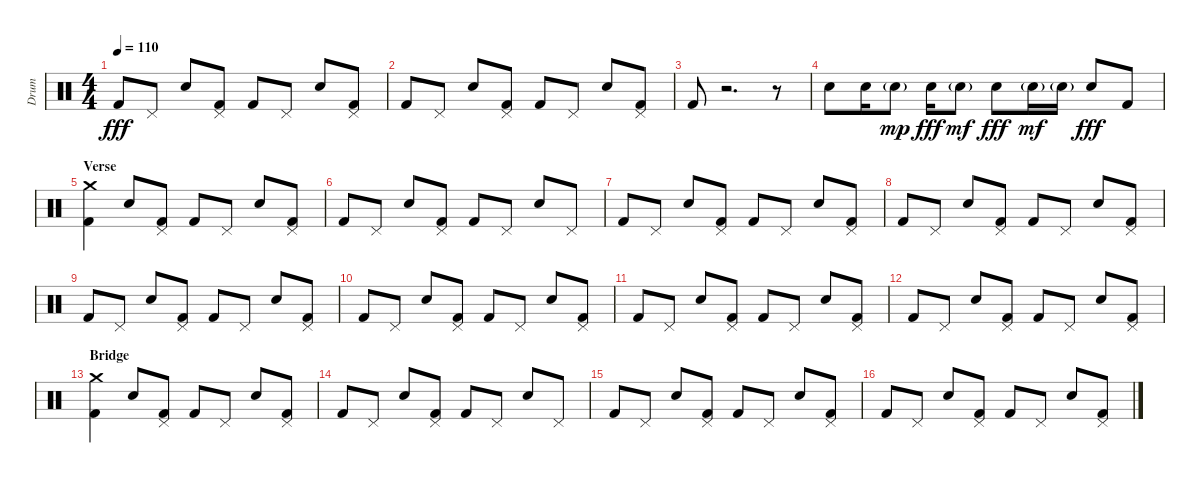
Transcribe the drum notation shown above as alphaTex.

\track ("Drum" "Drum") {instrument percussion}
\staff {score}
\articulation defaults
\ts (4 4)
\tempo 110
\clef neutral
\ks c "Kick (hit) 2".8{dy fff} "Pedal Hi-Hat (hit)".8 "Electric Snare (hit)".8
("Pedal Hi-Hat (hit)" "Kick (hit) 2").8 "Kick (hit) 2".8 "Pedal Hi-Hat (hit)".8 "Electric Snare (hit)".8 ("Pedal Hi-Hat (hit)" "Kick (hit) 2").8 |
"Kick (hit) 2".8 "Pedal Hi-Hat (hit)".8 "Electric Snare (hit)".8 ("Pedal Hi-Hat (hit)" "Kick (hit) 2").8 "Kick (hit) 2".8 "Pedal Hi-Hat (hit)".8 "Electric Snare (hit)".8 ("Pedal Hi-Hat (hit)" "Kick (hit) 2").8 |
"Kick (hit) 2".8 r.2{d} r.8 |
"Electric Snare (hit)".8 "Electric Snare (hit)".16 "Electric Snare (hit)"{g}.8{dy mp} "Electric Snare (hit)".16{dy fff} "Electric Snare (hit)"{g}.8{dy mf} "Electric Snare (hit)".8{dy fff} "Electric Snare (hit)"{g}.16{dy mf} "Electric Snare (hit)"{g}.16 "Electric Snare (hit)".8{dy fff} "Kick (hit) 2".8 |
\section ("" "Verse")
("Crash medium (hit)" "Kick (hit) 2").4 "Electric Snare (hit)".8 ("Pedal Hi-Hat (hit)" "Kick (hit) 2").8 "Kick (hit) 2".8 "Pedal Hi-Hat (hit)".8 "Electric Snare (hit)".8 ("Pedal Hi-Hat (hit)" "Kick (hit) 2").8 |
"Kick (hit) 2".8 "Pedal Hi-Hat (hit)".8 "Electric Snare (hit)".8 ("Pedal Hi-Hat (hit)" "Kick (hit) 2").8 "Kick (hit) 2".8 "Pedal Hi-Hat (hit)".8 "Electric Snare (hit)".8 "Pedal Hi-Hat (hit)".8 |
"Kick (hit) 2".8 "Pedal Hi-Hat (hit)".8 "Electric Snare (hit)".8 ("Pedal Hi-Hat (hit)" "Kick (hit) 2").8 "Kick (hit) 2".8 "Pedal Hi-Hat (hit)".8 "Electric Snare (hit)".8 ("Pedal Hi-Hat (hit)" "Kick (hit) 2").8 |
"Kick (hit) 2".8 "Pedal Hi-Hat (hit)".8 "Electric Snare (hit)".8 ("Pedal Hi-Hat (hit)" "Kick (hit) 2").8 "Kick (hit) 2".8 "Pedal Hi-Hat (hit)".8 "Electric Snare (hit)".8 ("Pedal Hi-Hat (hit)" "Kick (hit) 2").8 |
"Kick (hit) 2".8 "Pedal Hi-Hat (hit)".8 "Electric Snare (hit)".8 ("Pedal Hi-Hat (hit)" "Kick (hit) 2").8 "Kick (hit) 2".8 "Pedal Hi-Hat (hit)".8 "Electric Snare (hit)".8 ("Pedal Hi-Hat (hit)" "Kick (hit) 2").8 |
"Kick (hit) 2".8 "Pedal Hi-Hat (hit)".8 "Electric Snare (hit)".8 ("Pedal Hi-Hat (hit)" "Kick (hit) 2").8 "Kick (hit) 2".8 "Pedal Hi-Hat (hit)".8 "Electric Snare (hit)".8 ("Pedal Hi-Hat (hit)" "Kick (hit) 2").8 |
"Kick (hit) 2".8 "Pedal Hi-Hat (hit)".8 "Electric Snare (hit)".8 ("Pedal Hi-Hat (hit)" "Kick (hit) 2").8 "Kick (hit) 2".8 "Pedal Hi-Hat (hit)".8 "Electric Snare (hit)".8 ("Pedal Hi-Hat (hit)" "Kick (hit) 2").8 |
"Kick (hit) 2".8 "Pedal Hi-Hat (hit)".8 "Electric Snare (hit)".8 ("Pedal Hi-Hat (hit)" "Kick (hit) 2").8 "Kick (hit) 2".8 "Pedal Hi-Hat (hit)".8 "Electric Snare (hit)".8 ("Pedal Hi-Hat (hit)" "Kick (hit) 2").8 |
\section ("" "Bridge")
("Crash medium (hit)" "Kick (hit) 2").4 "Electric Snare (hit)".8 ("Pedal Hi-Hat (hit)" "Kick (hit) 2").8 "Kick (hit) 2".8 "Pedal Hi-Hat (hit)".8 "Electric Snare (hit)".8 ("Pedal Hi-Hat (hit)" "Kick (hit) 2").8 |
"Kick (hit) 2".8 "Pedal Hi-Hat (hit)".8 "Electric Snare (hit)".8 ("Pedal Hi-Hat (hit)" "Kick (hit) 2").8 "Kick (hit) 2".8 "Pedal Hi-Hat (hit)".8 "Electric Snare (hit)".8 "Pedal Hi-Hat (hit)".8 |
"Kick (hit) 2".8 "Pedal Hi-Hat (hit)".8 "Electric Snare (hit)".8 ("Pedal Hi-Hat (hit)" "Kick (hit) 2").8 "Kick (hit) 2".8 "Pedal Hi-Hat (hit)".8 "Electric Snare (hit)".8 ("Pedal Hi-Hat (hit)" "Kick (hit) 2").8 |
"Kick (hit) 2".8 "Pedal Hi-Hat (hit)".8 "Electric Snare (hit)".8 ("Pedal Hi-Hat (hit)" "Kick (hit) 2").8 "Kick (hit) 2".8 "Pedal Hi-Hat (hit)".8 "Electric Snare (hit)".8 ("Pedal Hi-Hat (hit)" "Kick (hit) 2").8
